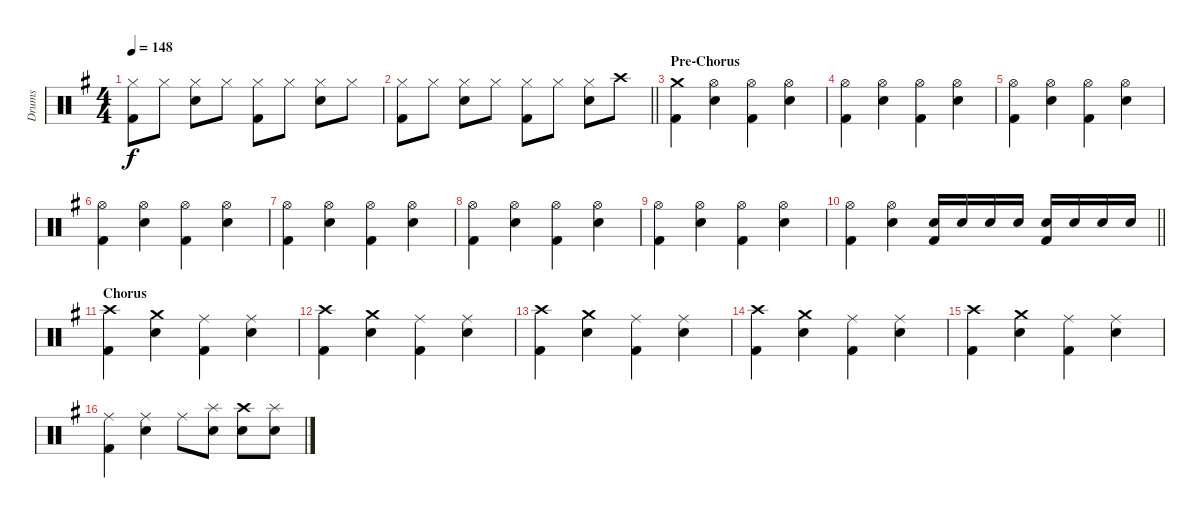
\track ("Drums" "Drums") {instrument percussion}
\staff {score}
\articulation defaults
\ts (4 4)
\tempo 148
\clef neutral
\ks g
("Kick (hit) 2" "Hi-Hat (closed)").8{dy f} "Hi-Hat (closed)".8 ("Snare (hit) 2" "Hi-Hat (closed)").8 "Hi-Hat (closed)".8 ("Kick (hit) 2" "Hi-Hat (closed)").8 "Hi-Hat (closed)".8 ("Snare (hit) 2" "Hi-Hat (closed)").8 "Hi-Hat (closed)".8 |
\barLineRight lightlight
("Kick (hit) 2" "Hi-Hat (closed)").8 "Hi-Hat (closed)".8 ("Snare (hit) 2" "Hi-Hat (closed)").8 "Hi-Hat (closed)".8 ("Kick (hit) 2" "Hi-Hat (closed)").8 "Hi-Hat (closed)".8 ("Snare (hit) 2" "Hi-Hat (closed)").8 "Crash high (hit)".8 |
\section ("" "Pre-Chorus")
("Kick (hit) 2" "Crash medium (hit)").4 ("Snare (hit) 2" "Hi-Hat (open)").4 ("Kick (hit) 2" "Hi-Hat (open)").4 ("Snare (hit) 2" "Hi-Hat (open)").4 |
("Kick (hit) 2" "Hi-Hat (open)").4 ("Snare (hit) 2" "Hi-Hat (open)").4 ("Kick (hit) 2" "Hi-Hat (open)").4 ("Snare (hit) 2" "Hi-Hat (open)").4 |
("Kick (hit) 2" "Hi-Hat (open)").4 ("Snare (hit) 2" "Hi-Hat (open)").4 ("Kick (hit) 2" "Hi-Hat (open)").4 ("Snare (hit) 2" "Hi-Hat (open)").4 |
("Kick (hit) 2" "Hi-Hat (open)").4 ("Snare (hit) 2" "Hi-Hat (open)").4 ("Kick (hit) 2" "Hi-Hat (open)").4 ("Snare (hit) 2" "Hi-Hat (open)").4 |
("Kick (hit) 2" "Hi-Hat (open)").4 ("Snare (hit) 2" "Hi-Hat (open)").4 ("Kick (hit) 2" "Hi-Hat (open)").4 ("Snare (hit) 2" "Hi-Hat (open)").4 |
("Kick (hit) 2" "Hi-Hat (open)").4 ("Snare (hit) 2" "Hi-Hat (open)").4 ("Kick (hit) 2" "Hi-Hat (open)").4 ("Snare (hit) 2" "Hi-Hat (open)").4 |
("Kick (hit) 2" "Hi-Hat (open)").4 ("Snare (hit) 2" "Hi-Hat (open)").4 ("Kick (hit) 2" "Hi-Hat (open)").4 ("Snare (hit) 2" "Hi-Hat (open)").4 |
\barLineRight lightlight
("Kick (hit) 2" "Hi-Hat (open)").4 ("Snare (hit) 2" "Hi-Hat (open)").4 ("Kick (hit) 2" "Snare (hit) 2").16 "Snare (hit) 2".16 "Snare (hit) 2".16 "Snare (hit) 2".16 ("Kick (hit) 2" "Snare (hit) 2").16 "Snare (hit) 2".16 "Snare (hit) 2".16 "Snare (hit) 2".16 |
\section ("" "Chorus")
("Kick (hit) 2" "Crash high (hit)").4 ("Snare (hit) 2" "Crash medium (hit)").4 ("Kick (hit) 2" "Ride (middle)").4 ("Snare (hit) 2" "Ride (middle)").4 |
("Kick (hit) 2" "Crash high (hit)").4 ("Snare (hit) 2" "Crash medium (hit)").4 ("Kick (hit) 2" "Ride (middle)").4 ("Snare (hit) 2" "Ride (middle)").4 |
("Kick (hit) 2" "Crash high (hit)").4 ("Snare (hit) 2" "Crash medium (hit)").4 ("Kick (hit) 2" "Ride (middle)").4 ("Snare (hit) 2" "Ride (middle)").4 |
("Kick (hit) 2" "Crash high (hit)").4 ("Snare (hit) 2" "Crash medium (hit)").4 ("Kick (hit) 2" "Ride (middle)").4 ("Snare (hit) 2" "Ride (middle)").4 |
("Kick (hit) 2" "Crash high (hit)").4 ("Snare (hit) 2" "Crash medium (hit)").4 ("Kick (hit) 2" "Ride (middle)").4 ("Snare (hit) 2" "Ride (middle)").4 |
("Kick (hit) 2" "Ride (middle)").4 ("Snare (hit) 2" "Ride (middle)").4 "Ride (middle)".8 ("Snare (hit) 2" "Splash (hit)").8 ("Snare (hit) 2" "Crash high (hit)").8 ("Snare (hit) 2" "Splash (hit)").8
